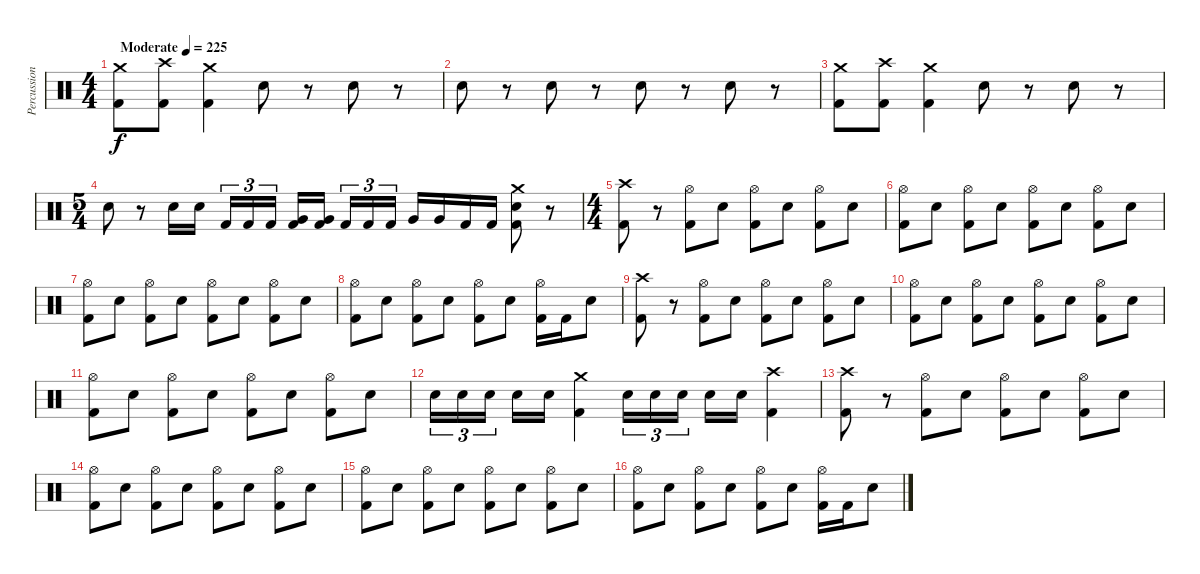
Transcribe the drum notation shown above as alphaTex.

\track ("Percussion" "Percussion") {instrument percussion}
\staff {score}
\articulation defaults
\ts (4 4)
\tempo (225 "Moderate")
\clef neutral
\ks c
("Crash medium (hit)" "Kick (hit) 2").8{dy f} ("Crash high (hit)" "Kick (hit) 2").8 ("Crash medium (hit)" "Kick (hit) 2").4 "Electric Snare (hit)".8 r.8 "Electric Snare (hit)".8 r.8 |
"Electric Snare (hit)".8 r.8 "Electric Snare (hit)".8 r.8 "Electric Snare (hit)".8 r.8 "Electric Snare (hit)".8 r.8 |
("Crash medium (hit)" "Kick (hit) 2").8 ("Crash high (hit)" "Kick (hit) 2").8 ("Crash medium (hit)" "Kick (hit) 2").4 "Electric Snare (hit)".8 r.8 "Electric Snare (hit)".8 r.8 |
\ts (5 4)
"Electric Snare (hit)".8 r.8 "Electric Snare (hit)".16 "Electric Snare (hit)".16{beam splitsecondary} "Kick (hit) 2".16{tu (3 2)} "Kick (hit) 2".16{tu (3 2)} "Kick (hit) 2".16{tu (3 2)} ("Very Low Tom (hit)" "Kick (hit) 2").16 ("Very Low Tom (hit)" "Kick (hit) 2").16{beam splitsecondary} "Kick (hit) 2".16{tu (3 2)} "Kick (hit) 2".16{tu (3 2)} "Kick (hit) 2".16{tu (3 2)} "Very Low Tom (hit)".16 "Very Low Tom (hit)".16 "Kick (hit) 2".16 "Kick (hit) 2".16 ("Crash medium (hit)" "Electric Snare (hit)" "Kick (hit) 2").8 r.8 |
\ts (4 4)
("Crash high (hit)" "Kick (hit) 2").8 r.8 ("Hi-Hat (open)" "Kick (hit) 2").8 "Electric Snare (hit)".8 ("Hi-Hat (open)" "Kick (hit) 2").8 "Electric Snare (hit)".8 ("Hi-Hat (open)" "Kick (hit) 2").8 "Electric Snare (hit)".8 |
("Hi-Hat (open)" "Kick (hit) 2").8 "Electric Snare (hit)".8 ("Hi-Hat (open)" "Kick (hit) 2").8 "Electric Snare (hit)".8 ("Hi-Hat (open)" "Kick (hit) 2").8 "Electric Snare (hit)".8 ("Hi-Hat (open)" "Kick (hit) 2").8 "Electric Snare (hit)".8 |
("Hi-Hat (open)" "Kick (hit) 2").8 "Electric Snare (hit)".8 ("Hi-Hat (open)" "Kick (hit) 2").8 "Electric Snare (hit)".8 ("Hi-Hat (open)" "Kick (hit) 2").8 "Electric Snare (hit)".8 ("Hi-Hat (open)" "Kick (hit) 2").8 "Electric Snare (hit)".8 |
("Hi-Hat (open)" "Kick (hit) 2").8 "Electric Snare (hit)".8 ("Hi-Hat (open)" "Kick (hit) 2").8 "Electric Snare (hit)".8 ("Hi-Hat (open)" "Kick (hit) 2").8 "Electric Snare (hit)".8 ("Hi-Hat (open)" "Kick (hit) 2").16 "Kick (hit) 2".16 "Electric Snare (hit)".8 |
("Crash high (hit)" "Kick (hit) 2").8 r.8 ("Hi-Hat (open)" "Kick (hit) 2").8 "Electric Snare (hit)".8 ("Hi-Hat (open)" "Kick (hit) 2").8 "Electric Snare (hit)".8 ("Hi-Hat (open)" "Kick (hit) 2").8 "Electric Snare (hit)".8 |
("Hi-Hat (open)" "Kick (hit) 2").8 "Electric Snare (hit)".8 ("Hi-Hat (open)" "Kick (hit) 2").8 "Electric Snare (hit)".8 ("Hi-Hat (open)" "Kick (hit) 2").8 "Electric Snare (hit)".8 ("Hi-Hat (open)" "Kick (hit) 2").8 "Electric Snare (hit)".8 |
("Hi-Hat (open)" "Kick (hit) 2").8 "Electric Snare (hit)".8 ("Hi-Hat (open)" "Kick (hit) 2").8 "Electric Snare (hit)".8 ("Hi-Hat (open)" "Kick (hit) 2").8 "Electric Snare (hit)".8 ("Hi-Hat (open)" "Kick (hit) 2").8 "Electric Snare (hit)".8 |
"Electric Snare (hit)".16{tu (3 2)} "Electric Snare (hit)".16{tu (3 2)} "Electric Snare (hit)".16{tu (3 2) beam splitsecondary} "Electric Snare (hit)".16 "Electric Snare (hit)".16 ("Crash medium (hit)" "Kick (hit) 2").4 "Electric Snare (hit)".16{tu (3 2)} "Electric Snare (hit)".16{tu (3 2)} "Electric Snare (hit)".16{tu (3 2) beam splitsecondary} "Electric Snare (hit)".16 "Electric Snare (hit)".16 ("Crash high (hit)" "Kick (hit) 2").4 |
("Crash high (hit)" "Kick (hit) 2").8 r.8 ("Hi-Hat (open)" "Kick (hit) 2").8 "Electric Snare (hit)".8 ("Hi-Hat (open)" "Kick (hit) 2").8 "Electric Snare (hit)".8 ("Hi-Hat (open)" "Kick (hit) 2").8 "Electric Snare (hit)".8 |
("Hi-Hat (open)" "Kick (hit) 2").8 "Electric Snare (hit)".8 ("Hi-Hat (open)" "Kick (hit) 2").8 "Electric Snare (hit)".8 ("Hi-Hat (open)" "Kick (hit) 2").8 "Electric Snare (hit)".8 ("Hi-Hat (open)" "Kick (hit) 2").8 "Electric Snare (hit)".8 |
("Hi-Hat (open)" "Kick (hit) 2").8 "Electric Snare (hit)".8 ("Hi-Hat (open)" "Kick (hit) 2").8 "Electric Snare (hit)".8 ("Hi-Hat (open)" "Kick (hit) 2").8 "Electric Snare (hit)".8 ("Hi-Hat (open)" "Kick (hit) 2").8 "Electric Snare (hit)".8 |
("Hi-Hat (open)" "Kick (hit) 2").8 "Electric Snare (hit)".8 ("Hi-Hat (open)" "Kick (hit) 2").8 "Electric Snare (hit)".8 ("Hi-Hat (open)" "Kick (hit) 2").8 "Electric Snare (hit)".8 ("Hi-Hat (open)" "Kick (hit) 2").16 "Kick (hit) 2".16 "Electric Snare (hit)".8
